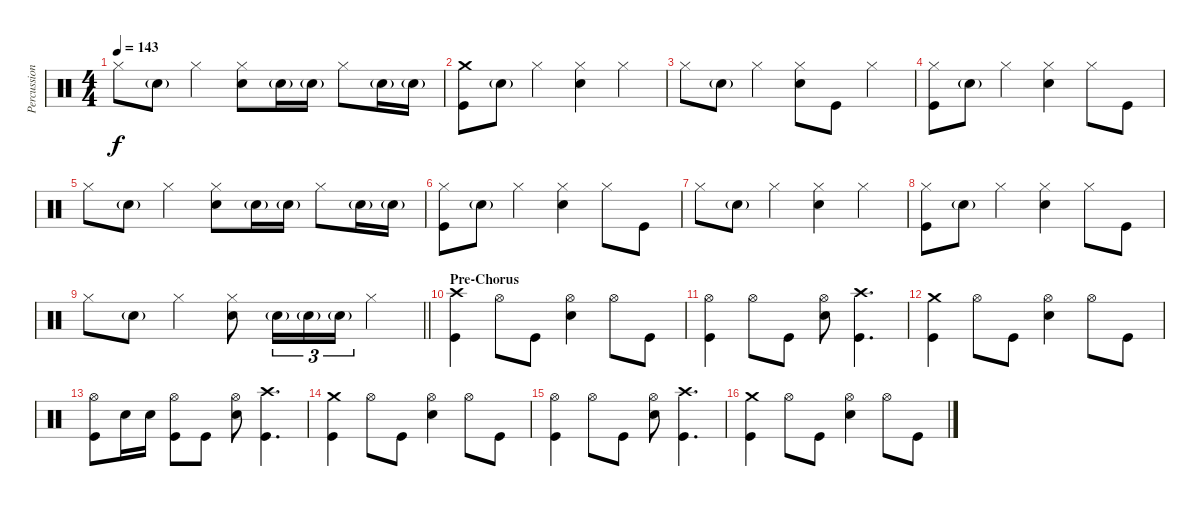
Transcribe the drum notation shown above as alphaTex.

\track ("Percussion" "Percussion") {instrument percussion}
\staff {score}
\articulation defaults
\ts (4 4)
\tempo 143
\clef neutral
\ks c "Hi-Hat (closed)".8{dy f} "Electric Snare (hit)"{g}.8 "Hi-Hat (closed)".4
("Hi-Hat (closed)" "Electric Snare (hit)").8 "Electric Snare (hit)"{g}.16 "Electric Snare (hit)"{g}.16 "Hi-Hat (closed)".8 "Electric Snare (hit)"{g}.16 "Electric Snare (hit)"{g}.16 |
("Crash medium (hit)" "Kick (hit)").8 "Electric Snare (hit)"{g}.8 "Hi-Hat (closed)".4 ("Hi-Hat (closed)" "Electric Snare (hit)").4 "Hi-Hat (closed)".4 |
"Hi-Hat (closed)".8 "Electric Snare (hit)"{g}.8 "Hi-Hat (closed)".4 ("Hi-Hat (closed)" "Electric Snare (hit)").8 "Kick (hit)".8 "Hi-Hat (closed)".4 |
("Hi-Hat (closed)" "Kick (hit)").8 "Electric Snare (hit)"{g}.8 "Hi-Hat (closed)".4 ("Hi-Hat (closed)" "Electric Snare (hit)").4 "Hi-Hat (closed)".8 "Kick (hit)".8 |
"Hi-Hat (closed)".8 "Electric Snare (hit)"{g}.8 "Hi-Hat (closed)".4 ("Hi-Hat (closed)" "Electric Snare (hit)").8 "Electric Snare (hit)"{g}.16 "Electric Snare (hit)"{g}.16 "Hi-Hat (closed)".8 "Electric Snare (hit)"{g}.16 "Electric Snare (hit)"{g}.16 |
("Hi-Hat (closed)" "Kick (hit)").8 "Electric Snare (hit)"{g}.8 "Hi-Hat (closed)".4 ("Hi-Hat (closed)" "Electric Snare (hit)").4 "Hi-Hat (closed)".8 "Kick (hit)".8 |
"Hi-Hat (closed)".8 "Electric Snare (hit)"{g}.8 "Hi-Hat (closed)".4 ("Hi-Hat (closed)" "Electric Snare (hit)").4 "Hi-Hat (closed)".4 |
("Hi-Hat (closed)" "Kick (hit)").8 "Electric Snare (hit)"{g}.8 "Hi-Hat (closed)".4 ("Hi-Hat (closed)" "Electric Snare (hit)").4 "Hi-Hat (closed)".8 "Kick (hit)".8 |
\barLineRight lightlight "Hi-Hat (closed)".8 "Electric Snare (hit)"{g}.8 "Hi-Hat (closed)".4
("Hi-Hat (closed)" "Electric Snare (hit)").8 "Electric Snare (hit)"{g}.16{tu (3 2)} "Electric Snare (hit)"{g}.16{tu (3 2)} "Electric Snare (hit)"{g}.16{tu (3 2)} "Hi-Hat (closed)".4 |
\section ("" "Pre-Chorus")
("Crash high (hit)" "Kick (hit)").4 "Hi-Hat (open)".8 "Kick (hit)".8 ("Hi-Hat (open)" "Electric Snare (hit)").4 "Hi-Hat (open)".8 "Kick (hit)".8 |
("Hi-Hat (open)" "Kick (hit)").4 "Hi-Hat (open)".8 "Kick (hit)".8 ("Hi-Hat (open)" "Electric Snare (hit)").8 ("Crash high (hit)" "Kick (hit)").4{d} |
("Crash medium (hit)" "Kick (hit)").4 "Hi-Hat (open)".8 "Kick (hit)".8 ("Hi-Hat (open)" "Electric Snare (hit)").4 "Hi-Hat (open)".8 "Kick (hit)".8 |
("Hi-Hat (open)" "Kick (hit)").8 "Electric Snare (hit)".16 "Electric Snare (hit)".16 ("Hi-Hat (open)" "Kick (hit)").8 "Kick (hit)".8 ("Hi-Hat (open)" "Electric Snare (hit)").8 ("Crash high (hit)" "Kick (hit)").4{d} |
("Crash medium (hit)" "Kick (hit)").4 "Hi-Hat (open)".8 "Kick (hit)".8 ("Hi-Hat (open)" "Electric Snare (hit)").4 "Hi-Hat (open)".8 "Kick (hit)".8 |
("Hi-Hat (open)" "Kick (hit)").4 "Hi-Hat (open)".8 "Kick (hit)".8 ("Hi-Hat (open)" "Electric Snare (hit)").8 ("Crash high (hit)" "Kick (hit)").4{d} |
("Crash medium (hit)" "Kick (hit)").4 "Hi-Hat (open)".8 "Kick (hit)".8 ("Hi-Hat (open)" "Electric Snare (hit)").4 "Hi-Hat (open)".8 "Kick (hit)".8
